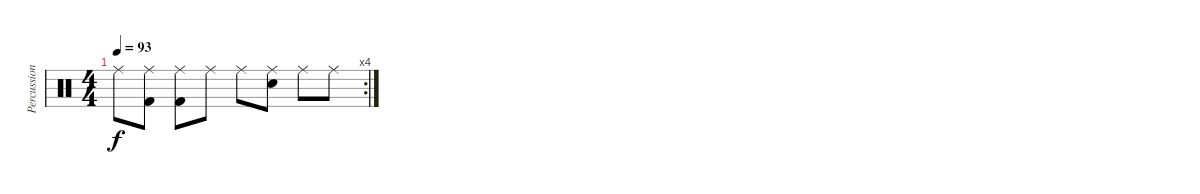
\track ("Percussions" "Percussion") {instrument percussion}
\staff {score}
\articulation defaults
\rc 4
\ts (4 4)
\tempo 93
\clef neutral
\ks c "Ride (middle)".8{dy f}
("Ride (middle)" "Kick (hit) 2").8 ("Ride (middle)" "Kick (hit) 2").8 "Ride (middle)".8 "Ride (middle)".8 ("Ride (middle)" "Snare (hit) 2").8 "Ride (middle)".8 "Ride (middle)".8
